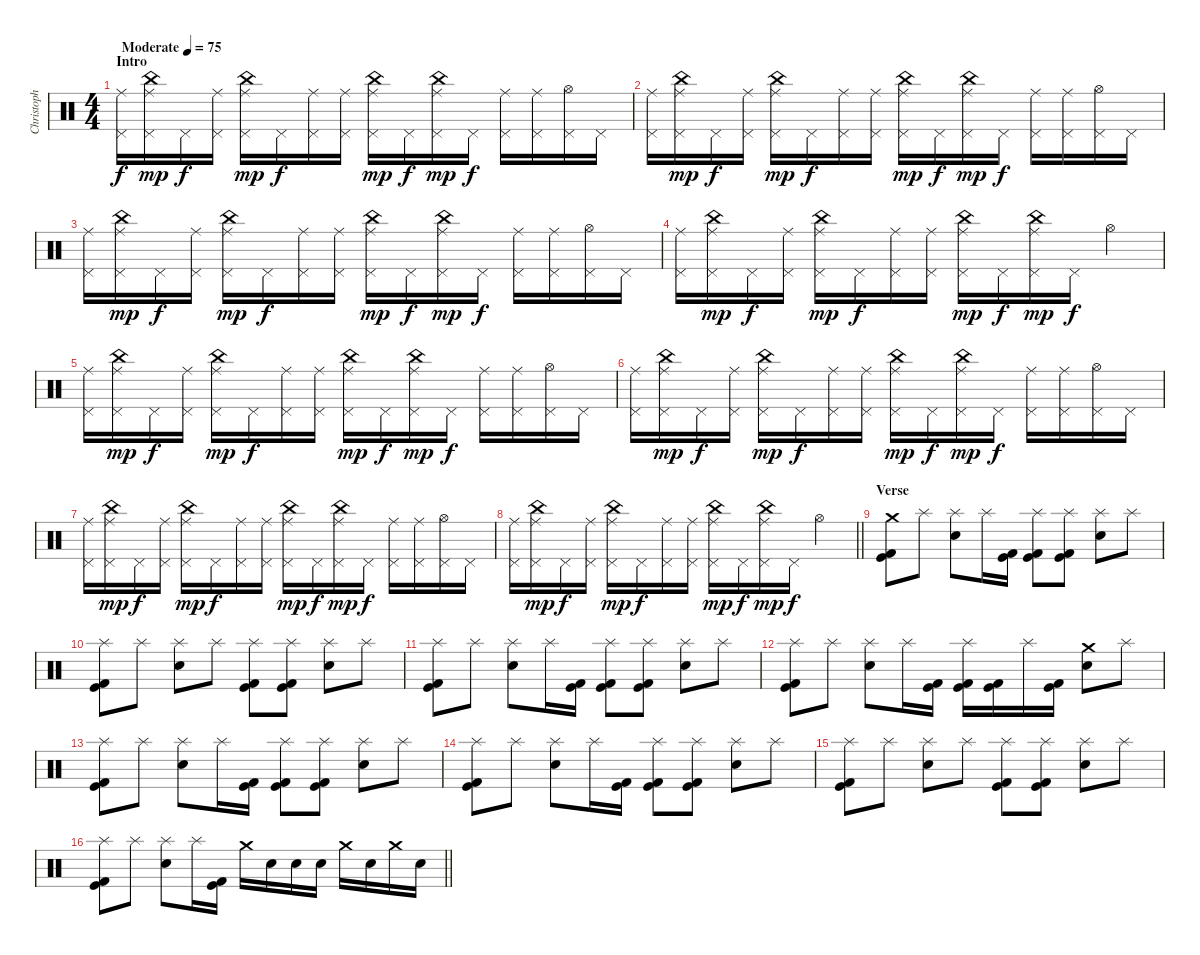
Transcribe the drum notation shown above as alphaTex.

\track ("Christoph" "Christoph") {instrument percussion}
\staff {score}
\articulation defaults
\ts (4 4)
\section ("" "Intro")
\tempo (75 "Moderate")
\clef neutral
\ks c
("Pedal Hi-Hat (hit)" "Ride (middle)").16{dy f} ("Pedal Hi-Hat (hit)" "Ride (middle)" "China (hit)").16{dy mp} "Pedal Hi-Hat (hit)".16{dy f} ("Pedal Hi-Hat (hit)" "Ride (middle)").16 ("Pedal Hi-Hat (hit)" "Ride (middle)" "China (hit)").16{dy mp} "Pedal Hi-Hat (hit)".16{dy f} ("Pedal Hi-Hat (hit)" "Ride (middle)").16 ("Pedal Hi-Hat (hit)" "Ride (middle)").16 ("Pedal Hi-Hat (hit)" "Ride (middle)" "China (hit)").16{dy mp} "Pedal Hi-Hat (hit)".16{dy f} ("Pedal Hi-Hat (hit)" "Ride (middle)" "China (hit)").16{dy mp} "Pedal Hi-Hat (hit)".16{dy f} ("Pedal Hi-Hat (hit)" "Ride (middle)").16 ("Pedal Hi-Hat (hit)" "Ride (middle)").16 ("Pedal Hi-Hat (hit)" "Hi-Hat (open)").16 "Pedal Hi-Hat (hit)".16 |
("Pedal Hi-Hat (hit)" "Ride (middle)").16 ("Pedal Hi-Hat (hit)" "Ride (middle)" "China (hit)").16{dy mp} "Pedal Hi-Hat (hit)".16{dy f} ("Pedal Hi-Hat (hit)" "Ride (middle)").16 ("Pedal Hi-Hat (hit)" "Ride (middle)" "China (hit)").16{dy mp} "Pedal Hi-Hat (hit)".16{dy f} ("Pedal Hi-Hat (hit)" "Ride (middle)").16 ("Pedal Hi-Hat (hit)" "Ride (middle)").16 ("Pedal Hi-Hat (hit)" "Ride (middle)" "China (hit)").16{dy mp} "Pedal Hi-Hat (hit)".16{dy f} ("Pedal Hi-Hat (hit)" "Ride (middle)" "China (hit)").16{dy mp} "Pedal Hi-Hat (hit)".16{dy f} ("Pedal Hi-Hat (hit)" "Ride (middle)").16 ("Pedal Hi-Hat (hit)" "Ride (middle)").16 ("Pedal Hi-Hat (hit)" "Hi-Hat (open)").16 "Pedal Hi-Hat (hit)".16 |
("Pedal Hi-Hat (hit)" "Ride (middle)").16 ("Pedal Hi-Hat (hit)" "Ride (middle)" "China (hit)").16{dy mp} "Pedal Hi-Hat (hit)".16{dy f} ("Pedal Hi-Hat (hit)" "Ride (middle)").16 ("Pedal Hi-Hat (hit)" "Ride (middle)" "China (hit)").16{dy mp} "Pedal Hi-Hat (hit)".16{dy f} ("Pedal Hi-Hat (hit)" "Ride (middle)").16 ("Pedal Hi-Hat (hit)" "Ride (middle)").16 ("Pedal Hi-Hat (hit)" "Ride (middle)" "China (hit)").16{dy mp} "Pedal Hi-Hat (hit)".16{dy f} ("Pedal Hi-Hat (hit)" "Ride (middle)" "China (hit)").16{dy mp} "Pedal Hi-Hat (hit)".16{dy f} ("Pedal Hi-Hat (hit)" "Ride (middle)").16 ("Pedal Hi-Hat (hit)" "Ride (middle)").16 ("Pedal Hi-Hat (hit)" "Hi-Hat (open)").16 "Pedal Hi-Hat (hit)".16 |
("Pedal Hi-Hat (hit)" "Ride (middle)").16 ("Pedal Hi-Hat (hit)" "Ride (middle)" "China (hit)").16{dy mp} "Pedal Hi-Hat (hit)".16{dy f} ("Pedal Hi-Hat (hit)" "Ride (middle)").16 ("Pedal Hi-Hat (hit)" "Ride (middle)" "China (hit)").16{dy mp} "Pedal Hi-Hat (hit)".16{dy f} ("Pedal Hi-Hat (hit)" "Ride (middle)").16 ("Pedal Hi-Hat (hit)" "Ride (middle)").16 ("Pedal Hi-Hat (hit)" "Ride (middle)" "China (hit)").16{dy mp} "Pedal Hi-Hat (hit)".16{dy f} ("Pedal Hi-Hat (hit)" "Ride (middle)" "China (hit)").16{dy mp} "Pedal Hi-Hat (hit)".16{dy f} "Hi-Hat (open)".4 |
("Pedal Hi-Hat (hit)" "Ride (middle)").16 ("Pedal Hi-Hat (hit)" "Ride (middle)" "China (hit)").16{dy mp} "Pedal Hi-Hat (hit)".16{dy f} ("Pedal Hi-Hat (hit)" "Ride (middle)").16 ("Pedal Hi-Hat (hit)" "Ride (middle)" "China (hit)").16{dy mp} "Pedal Hi-Hat (hit)".16{dy f} ("Pedal Hi-Hat (hit)" "Ride (middle)").16 ("Pedal Hi-Hat (hit)" "Ride (middle)").16 ("Pedal Hi-Hat (hit)" "Ride (middle)" "China (hit)").16{dy mp} "Pedal Hi-Hat (hit)".16{dy f} ("Pedal Hi-Hat (hit)" "Ride (middle)" "China (hit)").16{dy mp} "Pedal Hi-Hat (hit)".16{dy f} ("Pedal Hi-Hat (hit)" "Ride (middle)").16 ("Pedal Hi-Hat (hit)" "Ride (middle)").16 ("Pedal Hi-Hat (hit)" "Hi-Hat (open)").16 "Pedal Hi-Hat (hit)".16 |
("Pedal Hi-Hat (hit)" "Ride (middle)").16 ("Pedal Hi-Hat (hit)" "Ride (middle)" "China (hit)").16{dy mp} "Pedal Hi-Hat (hit)".16{dy f} ("Pedal Hi-Hat (hit)" "Ride (middle)").16 ("Pedal Hi-Hat (hit)" "Ride (middle)" "China (hit)").16{dy mp} "Pedal Hi-Hat (hit)".16{dy f} ("Pedal Hi-Hat (hit)" "Ride (middle)").16 ("Pedal Hi-Hat (hit)" "Ride (middle)").16 ("Pedal Hi-Hat (hit)" "Ride (middle)" "China (hit)").16{dy mp} "Pedal Hi-Hat (hit)".16{dy f} ("Pedal Hi-Hat (hit)" "Ride (middle)" "China (hit)").16{dy mp} "Pedal Hi-Hat (hit)".16{dy f} ("Pedal Hi-Hat (hit)" "Ride (middle)").16 ("Pedal Hi-Hat (hit)" "Ride (middle)").16 ("Pedal Hi-Hat (hit)" "Hi-Hat (open)").16 "Pedal Hi-Hat (hit)".16 |
("Pedal Hi-Hat (hit)" "Ride (middle)").16 ("Pedal Hi-Hat (hit)" "Ride (middle)" "China (hit)").16{dy mp} "Pedal Hi-Hat (hit)".16{dy f} ("Pedal Hi-Hat (hit)" "Ride (middle)").16 ("Pedal Hi-Hat (hit)" "Ride (middle)" "China (hit)").16{dy mp} "Pedal Hi-Hat (hit)".16{dy f} ("Pedal Hi-Hat (hit)" "Ride (middle)").16 ("Pedal Hi-Hat (hit)" "Ride (middle)").16 ("Pedal Hi-Hat (hit)" "Ride (middle)" "China (hit)").16{dy mp} "Pedal Hi-Hat (hit)".16{dy f} ("Pedal Hi-Hat (hit)" "Ride (middle)" "China (hit)").16{dy mp} "Pedal Hi-Hat (hit)".16{dy f} ("Pedal Hi-Hat (hit)" "Ride (middle)").16 ("Pedal Hi-Hat (hit)" "Ride (middle)").16 ("Pedal Hi-Hat (hit)" "Hi-Hat (open)").16 "Pedal Hi-Hat (hit)".16 |
\barLineRight lightlight
("Pedal Hi-Hat (hit)" "Ride (middle)").16 ("Pedal Hi-Hat (hit)" "Ride (middle)" "China (hit)").16{dy mp} "Pedal Hi-Hat (hit)".16{dy f} ("Pedal Hi-Hat (hit)" "Ride (middle)").16 ("Pedal Hi-Hat (hit)" "Ride (middle)" "China (hit)").16{dy mp} "Pedal Hi-Hat (hit)".16{dy f} ("Pedal Hi-Hat (hit)" "Ride (middle)").16 ("Pedal Hi-Hat (hit)" "Ride (middle)").16 ("Pedal Hi-Hat (hit)" "Ride (middle)" "China (hit)").16{dy mp} "Pedal Hi-Hat (hit)".16{dy f} ("Pedal Hi-Hat (hit)" "Ride (middle)" "China (hit)").16{dy mp} "Pedal Hi-Hat (hit)".16{dy f} "Hi-Hat (open)".4 |
\section ("" "Verse")
("Crash medium (hit)" "Kick (hit)" "Kick (hit) 2").8 "Splash (hit)".8 ("Splash (hit)" "Snare (hit) 2").8 "Splash (hit)".16 ("Kick (hit)" "Kick (hit) 2").16 ("Kick (hit) 2" "Kick (hit)" "Splash (hit)").8 ("Kick (hit) 2" "Kick (hit)" "Splash (hit)").8 ("Snare (hit) 2" "Splash (hit)").8 "Splash (hit)".8 |
("Splash (hit)" "Kick (hit)" "Kick (hit) 2").8 "Splash (hit)".8 ("Splash (hit)" "Snare (hit) 2").8 "Splash (hit)".8 ("Splash (hit)" "Kick (hit)" "Kick (hit) 2").8 ("Splash (hit)" "Kick (hit)" "Kick (hit) 2").8 ("Splash (hit)" "Snare (hit) 2").8 "Splash (hit)".8 |
("Splash (hit)" "Kick (hit)" "Kick (hit) 2").8 "Splash (hit)".8 ("Splash (hit)" "Snare (hit) 2").8 "Splash (hit)".16 ("Kick (hit)" "Kick (hit) 2").16 ("Kick (hit) 2" "Kick (hit)" "Splash (hit)").8 ("Kick (hit) 2" "Kick (hit)" "Splash (hit)").8 ("Snare (hit) 2" "Splash (hit)").8 "Splash (hit)".8 |
("Splash (hit)" "Kick (hit)" "Kick (hit) 2").8 "Splash (hit)".8 ("Splash (hit)" "Snare (hit) 2").8 "Splash (hit)".16 ("Kick (hit)" "Kick (hit) 2").16 ("Kick (hit) 2" "Kick (hit)" "Splash (hit)").16 ("Kick (hit) 2" "Kick (hit)").16 "Splash (hit)".16 ("Kick (hit)" "Kick (hit) 2").16 ("Snare (hit) 2" "Crash medium (hit)").8 "Splash (hit)".8 |
("Splash (hit)" "Kick (hit)" "Kick (hit) 2").8 "Splash (hit)".8 ("Splash (hit)" "Snare (hit) 2").8 "Splash (hit)".16 ("Kick (hit)" "Kick (hit) 2").16 ("Kick (hit) 2" "Kick (hit)" "Splash (hit)").8 ("Kick (hit) 2" "Kick (hit)" "Splash (hit)").8 ("Snare (hit) 2" "Splash (hit)").8 "Splash (hit)".8 |
("Splash (hit)" "Kick (hit)" "Kick (hit) 2").8 "Splash (hit)".8 ("Splash (hit)" "Snare (hit) 2").8 "Splash (hit)".16 ("Kick (hit)" "Kick (hit) 2").16 ("Kick (hit) 2" "Kick (hit)" "Splash (hit)").8 ("Kick (hit) 2" "Kick (hit)" "Splash (hit)").8 ("Snare (hit) 2" "Splash (hit)").8 "Splash (hit)".8 |
("Splash (hit)" "Kick (hit)" "Kick (hit) 2").8 "Splash (hit)".8 ("Splash (hit)" "Snare (hit) 2").8 "Splash (hit)".8 ("Splash (hit)" "Kick (hit)" "Kick (hit) 2").8 ("Splash (hit)" "Kick (hit)" "Kick (hit) 2").8 ("Splash (hit)" "Snare (hit) 2").8 "Splash (hit)".8 |
\barLineRight lightlight
("Splash (hit)" "Kick (hit)" "Kick (hit) 2").8 "Splash (hit)".8 ("Splash (hit)" "Snare (hit) 2").8 "Splash (hit)".16 ("Kick (hit)" "Kick (hit) 2").16 "Crash medium (hit)".16 "Snare (hit) 2".16 "Snare (hit) 2".16 "Snare (hit) 2".16 "Crash medium (hit)".16 "Snare (hit) 2".16 "Crash medium (hit)".16 "Snare (hit) 2".16
